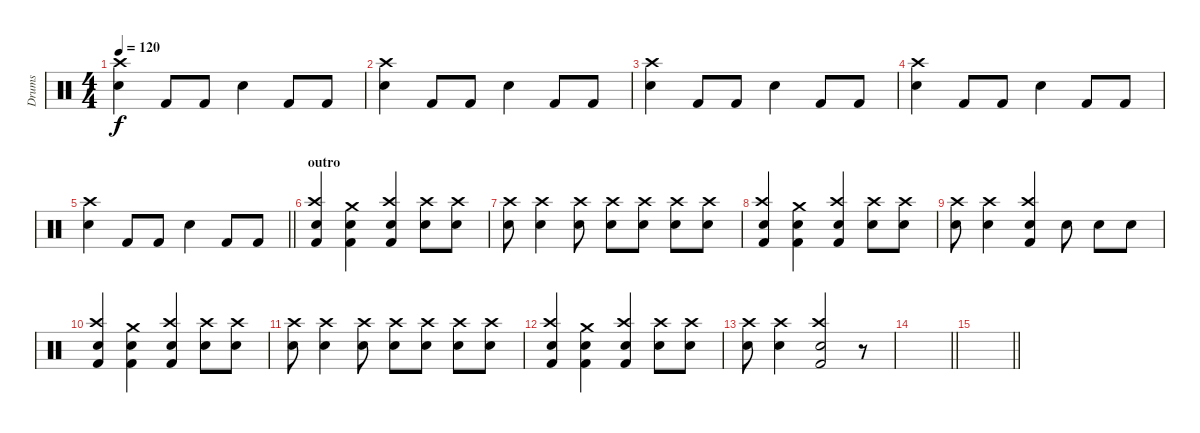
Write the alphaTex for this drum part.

\track ("Drums" "Drums") {instrument percussion}
\staff {score}
\articulation defaults
\ts (4 4)
\tempo 120
\clef neutral
\ks c
("Electric Snare (hit)" "Crash high (hit)").4{dy f} "Kick (hit) 2".8 "Kick (hit) 2".8 "Electric Snare (hit)".4 "Kick (hit) 2".8 "Kick (hit) 2".8 |
("Electric Snare (hit)" "Crash high (hit)").4 "Kick (hit) 2".8 "Kick (hit) 2".8 "Electric Snare (hit)".4 "Kick (hit) 2".8 "Kick (hit) 2".8 |
("Electric Snare (hit)" "Crash high (hit)").4 "Kick (hit) 2".8 "Kick (hit) 2".8 "Electric Snare (hit)".4 "Kick (hit) 2".8 "Kick (hit) 2".8 |
("Electric Snare (hit)" "Crash high (hit)").4 "Kick (hit) 2".8 "Kick (hit) 2".8 "Electric Snare (hit)".4 "Kick (hit) 2".8 "Kick (hit) 2".8 |
\barLineRight lightlight
("Electric Snare (hit)" "Crash high (hit)").4 "Kick (hit) 2".8 "Kick (hit) 2".8 "Electric Snare (hit)".4 "Kick (hit) 2".8 "Kick (hit) 2".8 |
\section ("" "outro")
("Electric Snare (hit)" "Kick (hit) 2" "Crash high (hit)").4 ("Electric Snare (hit)" "Kick (hit) 2" "Crash medium (hit)").4 ("Electric Snare (hit)" "Kick (hit) 2" "Crash high (hit)").4 ("Electric Snare (hit)" "Crash high (hit)").8 ("Electric Snare (hit)" "Crash high (hit)").8 |
("Electric Snare (hit)" "Crash high (hit)").8 ("Electric Snare (hit)" "Crash high (hit)").4 ("Electric Snare (hit)" "Crash high (hit)").8 ("Electric Snare (hit)" "Crash high (hit)").8 ("Electric Snare (hit)" "Crash high (hit)").8 ("Electric Snare (hit)" "Crash high (hit)").8 ("Electric Snare (hit)" "Crash high (hit)").8 |
("Electric Snare (hit)" "Kick (hit) 2" "Crash high (hit)").4 ("Electric Snare (hit)" "Kick (hit) 2" "Crash medium (hit)").4 ("Electric Snare (hit)" "Kick (hit) 2" "Crash high (hit)").4 ("Electric Snare (hit)" "Crash high (hit)").8 ("Electric Snare (hit)" "Crash high (hit)").8 |
("Electric Snare (hit)" "Crash high (hit)").8 ("Electric Snare (hit)" "Crash high (hit)").4 ("Electric Snare (hit)" "Kick (hit) 2" "Crash high (hit)").4 "Electric Snare (hit)".8 "Electric Snare (hit)".8 "Electric Snare (hit)".8 |
("Electric Snare (hit)" "Kick (hit) 2" "Crash high (hit)").4 ("Electric Snare (hit)" "Kick (hit) 2" "Crash medium (hit)").4 ("Electric Snare (hit)" "Kick (hit) 2" "Crash high (hit)").4 ("Electric Snare (hit)" "Crash high (hit)").8 ("Electric Snare (hit)" "Crash high (hit)").8 |
("Electric Snare (hit)" "Crash high (hit)").8 ("Electric Snare (hit)" "Crash high (hit)").4 ("Electric Snare (hit)" "Crash high (hit)").8 ("Electric Snare (hit)" "Crash high (hit)").8 ("Electric Snare (hit)" "Crash high (hit)").8 ("Electric Snare (hit)" "Crash high (hit)").8 ("Electric Snare (hit)" "Crash high (hit)").8 |
("Electric Snare (hit)" "Kick (hit) 2" "Crash high (hit)").4 ("Electric Snare (hit)" "Kick (hit) 2" "Crash medium (hit)").4 ("Electric Snare (hit)" "Kick (hit) 2" "Crash high (hit)").4 ("Electric Snare (hit)" "Crash high (hit)").8 ("Electric Snare (hit)" "Crash high (hit)").8 |
("Electric Snare (hit)" "Crash high (hit)").8 ("Electric Snare (hit)" "Crash high (hit)").4 ("Electric Snare (hit)" "Kick (hit) 2" "Crash high (hit)").2 r.8 |
\barLineRight lightlight
|
\barLineRight lightlight
